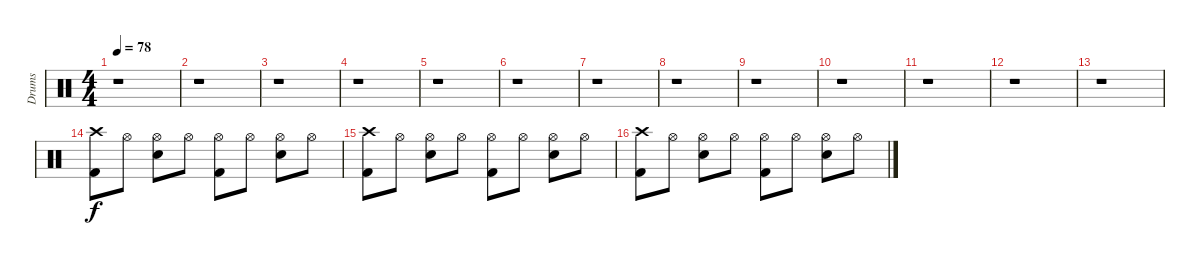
\track ("Drums" "Drums") {instrument percussion}
\staff {score}
\articulation defaults
\ts (4 4)
\tempo 78
\clef neutral
\ks c
r.1{dy f} |
r.1 |
r.1 |
r.1 |
r.1 |
r.1 |
r.1 |
r.1 |
r.1 |
r.1 |
r.1 |
r.1 |
r.1 |
("Crash high (hit)" "Kick (hit) 2").8 "Hi-Hat (open)".8 ("Hi-Hat (open)" "Snare (hit) 2").8 "Hi-Hat (open)".8 ("Hi-Hat (open)" "Kick (hit) 2").8 "Hi-Hat (open)".8 ("Hi-Hat (open)" "Snare (hit) 2").8 "Hi-Hat (open)".8 |
("Crash high (hit)" "Kick (hit) 2").8 "Hi-Hat (open)".8 ("Hi-Hat (open)" "Snare (hit) 2").8 "Hi-Hat (open)".8 ("Hi-Hat (open)" "Kick (hit) 2").8 "Hi-Hat (open)".8 ("Hi-Hat (open)" "Snare (hit) 2").8 "Hi-Hat (open)".8 |
("Crash high (hit)" "Kick (hit) 2").8 "Hi-Hat (open)".8 ("Hi-Hat (open)" "Snare (hit) 2").8 "Hi-Hat (open)".8 ("Hi-Hat (open)" "Kick (hit) 2").8 "Hi-Hat (open)".8 ("Hi-Hat (open)" "Snare (hit) 2").8 "Hi-Hat (open)".8
